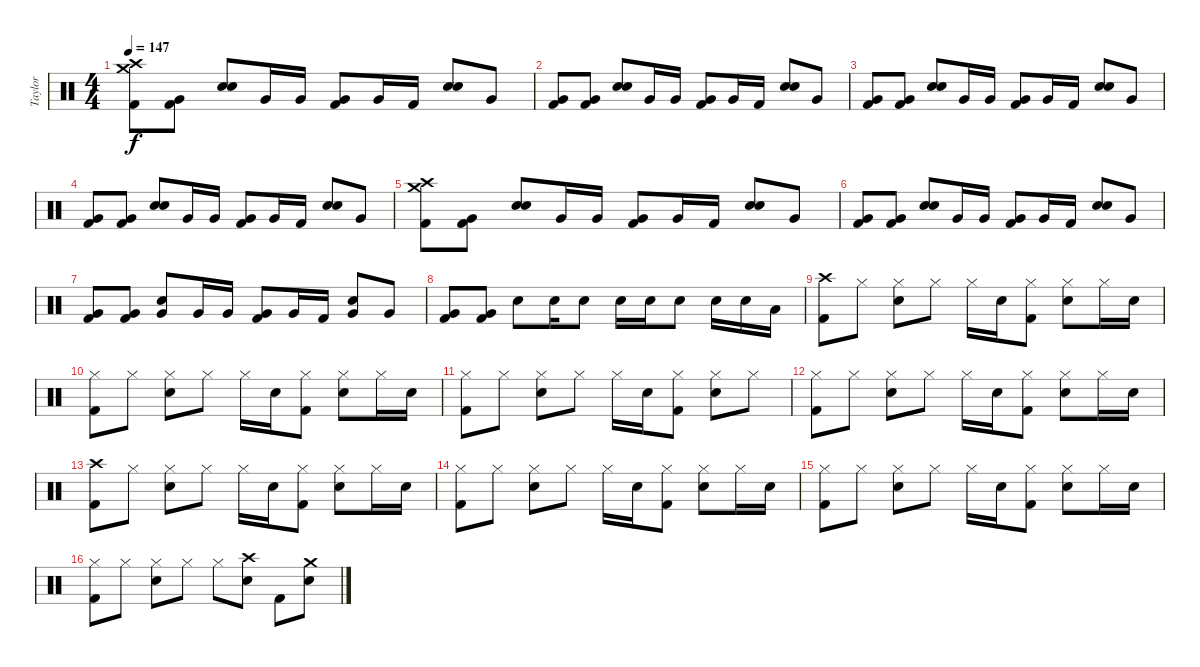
\track ("Taylor" "Taylor") {instrument percussion}
\staff {score}
\articulation defaults
\ts (4 4)
\tempo 147
\clef neutral
\ks c
("Crash high (hit)" "Crash medium (hit)" "Kick (hit) 2").8{dy f} ("Very Low Tom (hit)" "Kick (hit) 2").8 ("Electric Snare (hit)" "Electric Snare (hit)").8{bu 240} "Very Low Tom (hit)".16 "Very Low Tom (hit)".16 ("Very Low Tom (hit)" "Kick (hit) 2").8 "Very Low Tom (hit)".16 "Kick (hit) 2".16 ("Electric Snare (hit)" "Electric Snare (hit)").8{bu 240} "Very Low Tom (hit)".8 |
("Very Low Tom (hit)" "Kick (hit) 2").8 ("Very Low Tom (hit)" "Kick (hit) 2").8 ("Electric Snare (hit)" "Electric Snare (hit)").8{bu 240} "Very Low Tom (hit)".16 "Very Low Tom (hit)".16 ("Very Low Tom (hit)" "Kick (hit) 2").8 "Very Low Tom (hit)".16 "Kick (hit) 2".16 ("Electric Snare (hit)" "Electric Snare (hit)").8{bu 240} "Very Low Tom (hit)".8 |
("Very Low Tom (hit)" "Kick (hit) 2").8 ("Very Low Tom (hit)" "Kick (hit) 2").8 ("Electric Snare (hit)" "Electric Snare (hit)").8{bu 240} "Very Low Tom (hit)".16 "Very Low Tom (hit)".16 ("Very Low Tom (hit)" "Kick (hit) 2").8 "Very Low Tom (hit)".16 "Kick (hit) 2".16 ("Electric Snare (hit)" "Electric Snare (hit)").8{bu 240} "Very Low Tom (hit)".8 |
("Very Low Tom (hit)" "Kick (hit) 2").8 ("Very Low Tom (hit)" "Kick (hit) 2").8 ("Electric Snare (hit)" "Electric Snare (hit)").8{bu 240} "Very Low Tom (hit)".16 "Very Low Tom (hit)".16 ("Very Low Tom (hit)" "Kick (hit) 2").8 "Very Low Tom (hit)".16 "Kick (hit) 2".16 ("Electric Snare (hit)" "Electric Snare (hit)").8{bu 240} "Very Low Tom (hit)".8 |
("Crash high (hit)" "Crash medium (hit)" "Kick (hit) 2").8 ("Very Low Tom (hit)" "Kick (hit) 2").8 ("Electric Snare (hit)" "Electric Snare (hit)").8{bu 240} "Very Low Tom (hit)".16 "Very Low Tom (hit)".16 ("Very Low Tom (hit)" "Kick (hit) 2").8 "Very Low Tom (hit)".16 "Kick (hit) 2".16 ("Electric Snare (hit)" "Electric Snare (hit)").8{bu 240} "Very Low Tom (hit)".8 |
("Very Low Tom (hit)" "Kick (hit) 2").8 ("Very Low Tom (hit)" "Kick (hit) 2").8 ("Electric Snare (hit)" "Electric Snare (hit)").8{bu 240} "Very Low Tom (hit)".16 "Very Low Tom (hit)".16 ("Very Low Tom (hit)" "Kick (hit) 2").8 "Very Low Tom (hit)".16 "Kick (hit) 2".16 ("Electric Snare (hit)" "Electric Snare (hit)").8{bu 240} "Very Low Tom (hit)".8 |
("Very Low Tom (hit)" "Kick (hit) 2").8 ("Very Low Tom (hit)" "Kick (hit) 2").8 ("Very Low Tom (hit)" "Electric Snare (hit)").8 "Very Low Tom (hit)".16 "Very Low Tom (hit)".16 ("Very Low Tom (hit)" "Kick (hit) 2").8 "Very Low Tom (hit)".16 "Kick (hit) 2".16 ("Very Low Tom (hit)" "Electric Snare (hit)").8 "Very Low Tom (hit)".8 |
("Very Low Tom (hit)" "Kick (hit) 2").8 ("Very Low Tom (hit)" "Kick (hit) 2").8 "Electric Snare (hit)".8 "Electric Snare (hit)".16 "Electric Snare (hit)".8 "Electric Snare (hit)".16 "Electric Snare (hit)".16 "Electric Snare (hit)".8 "Electric Snare (hit)".16 "Electric Snare (hit)".16 "Low Tom (hit)".16 |
("Crash high (hit)" "Kick (hit) 2").8 "Hi-Hat (closed)".8 ("Hi-Hat (closed)" "Electric Snare (hit)").8 "Hi-Hat (closed)".8 "Hi-Hat (closed)".16 "Electric Snare (hit)".16 ("Hi-Hat (closed)" "Kick (hit) 2").8 ("Hi-Hat (closed)" "Electric Snare (hit)").8 "Hi-Hat (closed)".16 "Electric Snare (hit)".16 |
("Hi-Hat (closed)" "Kick (hit) 2").8 "Hi-Hat (closed)".8 ("Hi-Hat (closed)" "Electric Snare (hit)").8 "Hi-Hat (closed)".8 "Hi-Hat (closed)".16 "Electric Snare (hit)".16 ("Hi-Hat (closed)" "Kick (hit) 2").8 ("Hi-Hat (closed)" "Electric Snare (hit)").8 "Hi-Hat (closed)".16 "Electric Snare (hit)".16 |
("Hi-Hat (closed)" "Kick (hit) 2").8 "Hi-Hat (closed)".8 ("Hi-Hat (closed)" "Electric Snare (hit)").8 "Hi-Hat (closed)".8 "Hi-Hat (closed)".16 "Electric Snare (hit)".16 ("Hi-Hat (closed)" "Kick (hit) 2").8 ("Hi-Hat (closed)" "Electric Snare (hit)").8 "Hi-Hat (closed)".8 |
("Hi-Hat (closed)" "Kick (hit) 2").8 "Hi-Hat (closed)".8 ("Hi-Hat (closed)" "Electric Snare (hit)").8 "Hi-Hat (closed)".8 "Hi-Hat (closed)".16 "Electric Snare (hit)".16 ("Hi-Hat (closed)" "Kick (hit) 2").8 ("Hi-Hat (closed)" "Electric Snare (hit)").8 "Hi-Hat (closed)".16 "Electric Snare (hit)".16 |
("Crash high (hit)" "Kick (hit) 2").8 "Hi-Hat (closed)".8 ("Hi-Hat (closed)" "Electric Snare (hit)").8 "Hi-Hat (closed)".8 "Hi-Hat (closed)".16 "Electric Snare (hit)".16 ("Hi-Hat (closed)" "Kick (hit) 2").8 ("Hi-Hat (closed)" "Electric Snare (hit)").8 "Hi-Hat (closed)".16 "Electric Snare (hit)".16 |
("Hi-Hat (closed)" "Kick (hit) 2").8 "Hi-Hat (closed)".8 ("Hi-Hat (closed)" "Electric Snare (hit)").8 "Hi-Hat (closed)".8 "Hi-Hat (closed)".16 "Electric Snare (hit)".16 ("Hi-Hat (closed)" "Kick (hit) 2").8 ("Hi-Hat (closed)" "Electric Snare (hit)").8 "Hi-Hat (closed)".16 "Electric Snare (hit)".16 |
("Hi-Hat (closed)" "Kick (hit) 2").8 "Hi-Hat (closed)".8 ("Hi-Hat (closed)" "Electric Snare (hit)").8 "Hi-Hat (closed)".8 "Hi-Hat (closed)".16 "Electric Snare (hit)".16 ("Hi-Hat (closed)" "Kick (hit) 2").8 ("Hi-Hat (closed)" "Electric Snare (hit)").8 "Hi-Hat (closed)".16 "Electric Snare (hit)".16 |
("Hi-Hat (closed)" "Kick (hit) 2").8 "Hi-Hat (closed)".8 ("Hi-Hat (closed)" "Electric Snare (hit)").8 "Hi-Hat (closed)".8 "Hi-Hat (closed)".8 ("Crash high (hit)" "Electric Snare (hit)").8 "Kick (hit) 2".8 ("Crash medium (hit)" "Electric Snare (hit)").8
